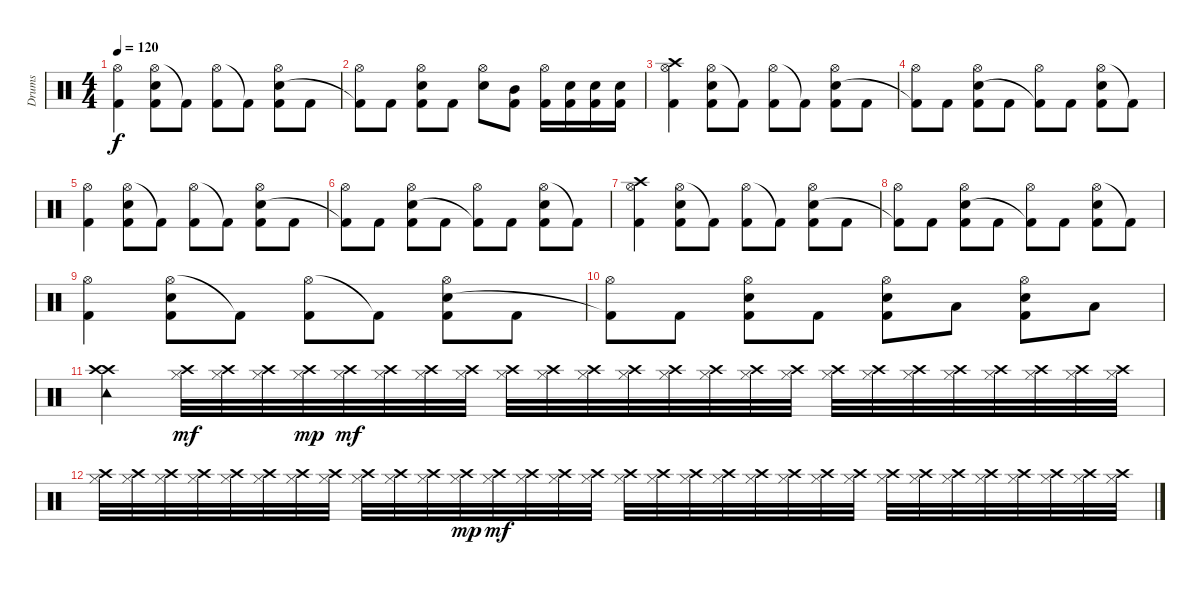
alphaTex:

\track ("Drums" "Drums") {instrument percussion}
\staff {score}
\articulation defaults
\ts (4 4)
\tempo 120
\clef neutral
\ks c
("Hi-Hat (open)" "Kick (hit) 2").4{dy f} ("Hi-Hat (open)" "Electric Snare (hit)" "Kick (hit) 2").8 "Kick (hit) 2"{t}.8 ("Hi-Hat (open)" "Kick (hit) 2").8 "Kick (hit) 2"{t}.8 ("Hi-Hat (open)" "Electric Snare (hit)" "Kick (hit) 2").8 "Kick (hit) 2".8 |
("Hi-Hat (open)" "Kick (hit) 2"{t}).8 "Kick (hit) 2".8 ("Hi-Hat (open)" "Electric Snare (hit)" "Kick (hit) 2").8 "Kick (hit) 2".8 ("Hi-Hat (open)" "Electric Snare (hit)").8 ("Mid Tom (hit)" "Kick (hit) 2").8 ("Hi-Hat (open)" "Kick (hit) 2").16 ("Electric Snare (hit)" "Kick (hit) 2").16 ("Electric Snare (hit)" "Kick (hit) 2").16 ("Electric Snare (hit)" "Kick (hit) 2").16 |
("Crash high (hit)" "Hi-Hat (open)" "Kick (hit) 2").4 ("Hi-Hat (open)" "Electric Snare (hit)" "Kick (hit) 2").8 "Kick (hit) 2"{t}.8 ("Hi-Hat (open)" "Kick (hit) 2").8 "Kick (hit) 2"{t}.8 ("Hi-Hat (open)" "Electric Snare (hit)" "Kick (hit) 2").8 "Kick (hit) 2".8 |
("Hi-Hat (open)" "Kick (hit) 2"{t}).8 "Kick (hit) 2".8 ("Hi-Hat (open)" "Electric Snare (hit)" "Kick (hit) 2").8 "Kick (hit) 2".8 ("Hi-Hat (open)" "Kick (hit) 2"{t}).8 "Kick (hit) 2".8 ("Hi-Hat (open)" "Electric Snare (hit)" "Kick (hit) 2").8 "Kick (hit) 2"{t}.8 |
("Hi-Hat (open)" "Kick (hit) 2").4 ("Hi-Hat (open)" "Electric Snare (hit)" "Kick (hit) 2").8 "Kick (hit) 2"{t}.8 ("Hi-Hat (open)" "Kick (hit) 2").8 "Kick (hit) 2"{t}.8 ("Hi-Hat (open)" "Electric Snare (hit)" "Kick (hit) 2").8 "Kick (hit) 2".8 |
("Hi-Hat (open)" "Kick (hit) 2"{t}).8 "Kick (hit) 2".8 ("Hi-Hat (open)" "Electric Snare (hit)" "Kick (hit) 2").8 "Kick (hit) 2".8 ("Hi-Hat (open)" "Kick (hit) 2"{t}).8 "Kick (hit) 2".8 ("Hi-Hat (open)" "Electric Snare (hit)" "Kick (hit) 2").8 "Kick (hit) 2"{t}.8 |
("Crash high (hit)" "Hi-Hat (open)" "Kick (hit) 2").4 ("Hi-Hat (open)" "Electric Snare (hit)" "Kick (hit) 2").8 "Kick (hit) 2"{t}.8 ("Hi-Hat (open)" "Kick (hit) 2").8 "Kick (hit) 2"{t}.8 ("Hi-Hat (open)" "Electric Snare (hit)" "Kick (hit) 2").8 "Kick (hit) 2".8 |
("Hi-Hat (open)" "Kick (hit) 2"{t}).8 "Kick (hit) 2".8 ("Hi-Hat (open)" "Electric Snare (hit)" "Kick (hit) 2").8 "Kick (hit) 2".8 ("Hi-Hat (open)" "Kick (hit) 2"{t}).8 "Kick (hit) 2".8 ("Hi-Hat (open)" "Electric Snare (hit)" "Kick (hit) 2").8 "Kick (hit) 2"{t}.8 |
("Hi-Hat (open)" "Kick (hit) 2").4 ("Hi-Hat (open)" "Electric Snare (hit)" "Kick (hit) 2").8 "Kick (hit) 2"{t}.8 ("Hi-Hat (open)" "Kick (hit) 2").8 "Kick (hit) 2"{t}.8 ("Hi-Hat (open)" "Electric Snare (hit)" "Kick (hit) 2").8 "Kick (hit) 2".8 |
("Hi-Hat (open)" "Kick (hit) 2"{t}).8 "Kick (hit) 2".8 ("Hi-Hat (open)" "Electric Snare (hit)" "Kick (hit) 2").8 "Kick (hit) 2".8 ("Hi-Hat (open)" "Electric Snare (hit)" "Kick (hit) 2").8 "Low Tom (hit)".8 ("Hi-Hat (open)" "Electric Snare (hit)" "Kick (hit) 2").8 "Low Tom (hit)".8 |
("Tambourine (hit)" "Crash high (hit)" "Crash high (hit)").4 ("Crash high (hit)" "Hi-Hat (closed)").32{dy mf} ("Crash high (hit)" "Hi-Hat (closed)").32 ("Crash high (hit)" "Hi-Hat (closed)").32 ("Crash high (hit)" "Hi-Hat (closed)").32{dy mp} ("Crash high (hit)" "Hi-Hat (closed)").32{dy mf} ("Crash high (hit)" "Hi-Hat (closed)").32 ("Crash high (hit)" "Hi-Hat (closed)").32 ("Crash high (hit)" "Hi-Hat (closed)").32 ("Crash high (hit)" "Hi-Hat (closed)").32{volume 12} ("Crash high (hit)" "Hi-Hat (closed)").32 ("Crash high (hit)" "Hi-Hat (closed)").32 ("Crash high (hit)" "Hi-Hat (closed)").32 ("Crash high (hit)" "Hi-Hat (closed)").32 ("Crash high (hit)" "Hi-Hat (closed)").32 ("Crash high (hit)" "Hi-Hat (closed)").32 ("Crash high (hit)" "Hi-Hat (closed)").32 ("Crash high (hit)" "Hi-Hat (closed)").32{volume 10} ("Crash high (hit)" "Hi-Hat (closed)").32 ("Crash high (hit)" "Hi-Hat (closed)").32 ("Crash high (hit)" "Hi-Hat (closed)").32 ("Crash high (hit)" "Hi-Hat (closed)").32 ("Crash high (hit)" "Hi-Hat (closed)").32 ("Crash high (hit)" "Hi-Hat (closed)").32 ("Crash high (hit)" "Hi-Hat (closed)").32 |
("Crash high (hit)" "Hi-Hat (closed)").32{volume 8} ("Crash high (hit)" "Hi-Hat (closed)").32 ("Crash high (hit)" "Hi-Hat (closed)").32 ("Crash high (hit)" "Hi-Hat (closed)").32 ("Crash high (hit)" "Hi-Hat (closed)").32 ("Crash high (hit)" "Hi-Hat (closed)").32 ("Crash high (hit)" "Hi-Hat (closed)").32 ("Crash high (hit)" "Hi-Hat (closed)").32 ("Crash high (hit)" "Hi-Hat (closed)").32{volume 6} ("Crash high (hit)" "Hi-Hat (closed)").32 ("Crash high (hit)" "Hi-Hat (closed)").32 ("Crash high (hit)" "Hi-Hat (closed)").32{dy mp} ("Crash high (hit)" "Hi-Hat (closed)").32{dy mf} ("Crash high (hit)" "Hi-Hat (closed)").32 ("Crash high (hit)" "Hi-Hat (closed)").32 ("Crash high (hit)" "Hi-Hat (closed)").32 ("Crash high (hit)" "Hi-Hat (closed)").32{volume 4} ("Crash high (hit)" "Hi-Hat (closed)").32 ("Crash high (hit)" "Hi-Hat (closed)").32 ("Crash high (hit)" "Hi-Hat (closed)").32 ("Crash high (hit)" "Hi-Hat (closed)").32 ("Crash high (hit)" "Hi-Hat (closed)").32 ("Crash high (hit)" "Hi-Hat (closed)").32 ("Crash high (hit)" "Hi-Hat (closed)").32 ("Crash high (hit)" "Hi-Hat (closed)").32{volume 2} ("Crash high (hit)" "Hi-Hat (closed)").32 ("Crash high (hit)" "Hi-Hat (closed)").32 ("Crash high (hit)" "Hi-Hat (closed)").32 ("Crash high (hit)" "Hi-Hat (closed)").32 ("Crash high (hit)" "Hi-Hat (closed)").32 ("Crash high (hit)" "Hi-Hat (closed)").32 ("Crash high (hit)" "Hi-Hat (closed)").32
